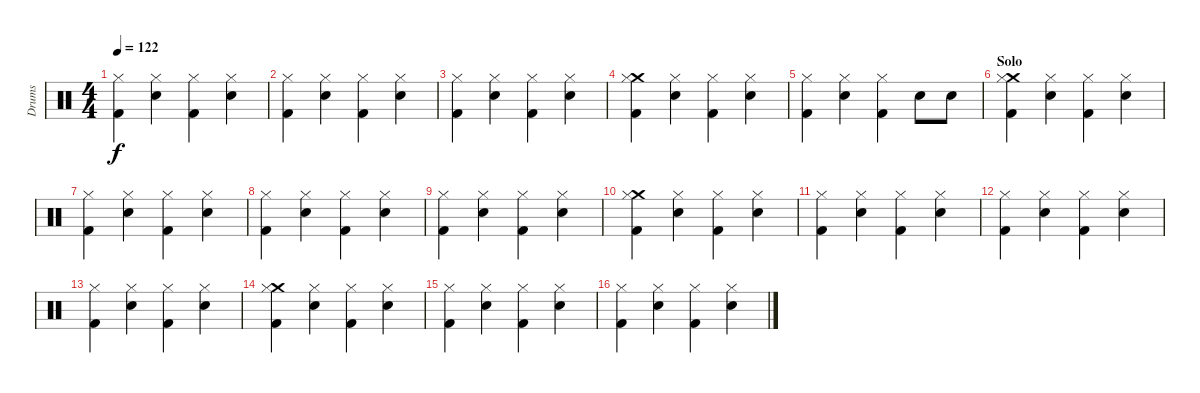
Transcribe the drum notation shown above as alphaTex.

\track ("Drums" "Drums") {instrument percussion}
\staff {score}
\articulation defaults
\ts (4 4)
\tempo 122
\clef neutral
\ks aminor
("Hi-Hat (closed)" "Kick (hit) 2").4{dy f} ("Hi-Hat (closed)" "Snare (hit) 2").4 ("Hi-Hat (closed)" "Kick (hit) 2").4 ("Hi-Hat (closed)" "Snare (hit) 2").4 |
("Hi-Hat (closed)" "Kick (hit) 2").4 ("Hi-Hat (closed)" "Snare (hit) 2").4 ("Hi-Hat (closed)" "Kick (hit) 2").4 ("Hi-Hat (closed)" "Snare (hit) 2").4 |
("Hi-Hat (closed)" "Kick (hit) 2").4 ("Hi-Hat (closed)" "Snare (hit) 2").4 ("Hi-Hat (closed)" "Kick (hit) 2").4 ("Hi-Hat (closed)" "Snare (hit) 2").4 |
("Crash medium (hit)" "Hi-Hat (closed)" "Kick (hit) 2").4 ("Hi-Hat (closed)" "Snare (hit) 2").4 ("Hi-Hat (closed)" "Kick (hit) 2").4 ("Hi-Hat (closed)" "Snare (hit) 2").4 |
("Hi-Hat (closed)" "Kick (hit) 2").4 ("Hi-Hat (closed)" "Snare (hit) 2").4 ("Hi-Hat (closed)" "Kick (hit) 2").4 "Electric Snare (hit)".8 "Electric Snare (hit)".8 |
\section ("" "Solo")
("Crash medium (hit)" "Hi-Hat (closed)" "Kick (hit) 2").4 ("Hi-Hat (closed)" "Snare (hit) 2").4 ("Hi-Hat (closed)" "Kick (hit) 2").4 ("Hi-Hat (closed)" "Snare (hit) 2").4 |
("Hi-Hat (closed)" "Kick (hit) 2").4 ("Hi-Hat (closed)" "Snare (hit) 2").4 ("Hi-Hat (closed)" "Kick (hit) 2").4 ("Hi-Hat (closed)" "Snare (hit) 2").4 |
("Hi-Hat (closed)" "Kick (hit) 2").4 ("Hi-Hat (closed)" "Snare (hit) 2").4 ("Hi-Hat (closed)" "Kick (hit) 2").4 ("Hi-Hat (closed)" "Snare (hit) 2").4 |
("Hi-Hat (closed)" "Kick (hit) 2").4 ("Hi-Hat (closed)" "Snare (hit) 2").4 ("Hi-Hat (closed)" "Kick (hit) 2").4 ("Hi-Hat (closed)" "Snare (hit) 2").4 |
("Crash medium (hit)" "Hi-Hat (closed)" "Kick (hit) 2").4 ("Hi-Hat (closed)" "Snare (hit) 2").4 ("Hi-Hat (closed)" "Kick (hit) 2").4 ("Hi-Hat (closed)" "Snare (hit) 2").4 |
("Hi-Hat (closed)" "Kick (hit) 2").4 ("Hi-Hat (closed)" "Snare (hit) 2").4 ("Hi-Hat (closed)" "Kick (hit) 2").4 ("Hi-Hat (closed)" "Snare (hit) 2").4 |
("Hi-Hat (closed)" "Kick (hit) 2").4 ("Hi-Hat (closed)" "Snare (hit) 2").4 ("Hi-Hat (closed)" "Kick (hit) 2").4 ("Hi-Hat (closed)" "Snare (hit) 2").4 |
("Hi-Hat (closed)" "Kick (hit) 2").4 ("Hi-Hat (closed)" "Snare (hit) 2").4 ("Hi-Hat (closed)" "Kick (hit) 2").4 ("Hi-Hat (closed)" "Snare (hit) 2").4 |
("Crash medium (hit)" "Hi-Hat (closed)" "Kick (hit) 2").4 ("Hi-Hat (closed)" "Snare (hit) 2").4 ("Hi-Hat (closed)" "Kick (hit) 2").4 ("Hi-Hat (closed)" "Snare (hit) 2").4 |
("Hi-Hat (closed)" "Kick (hit) 2").4 ("Hi-Hat (closed)" "Snare (hit) 2").4 ("Hi-Hat (closed)" "Kick (hit) 2").4 ("Hi-Hat (closed)" "Snare (hit) 2").4 |
("Hi-Hat (closed)" "Kick (hit) 2").4 ("Hi-Hat (closed)" "Snare (hit) 2").4 ("Hi-Hat (closed)" "Kick (hit) 2").4 ("Hi-Hat (closed)" "Snare (hit) 2").4
